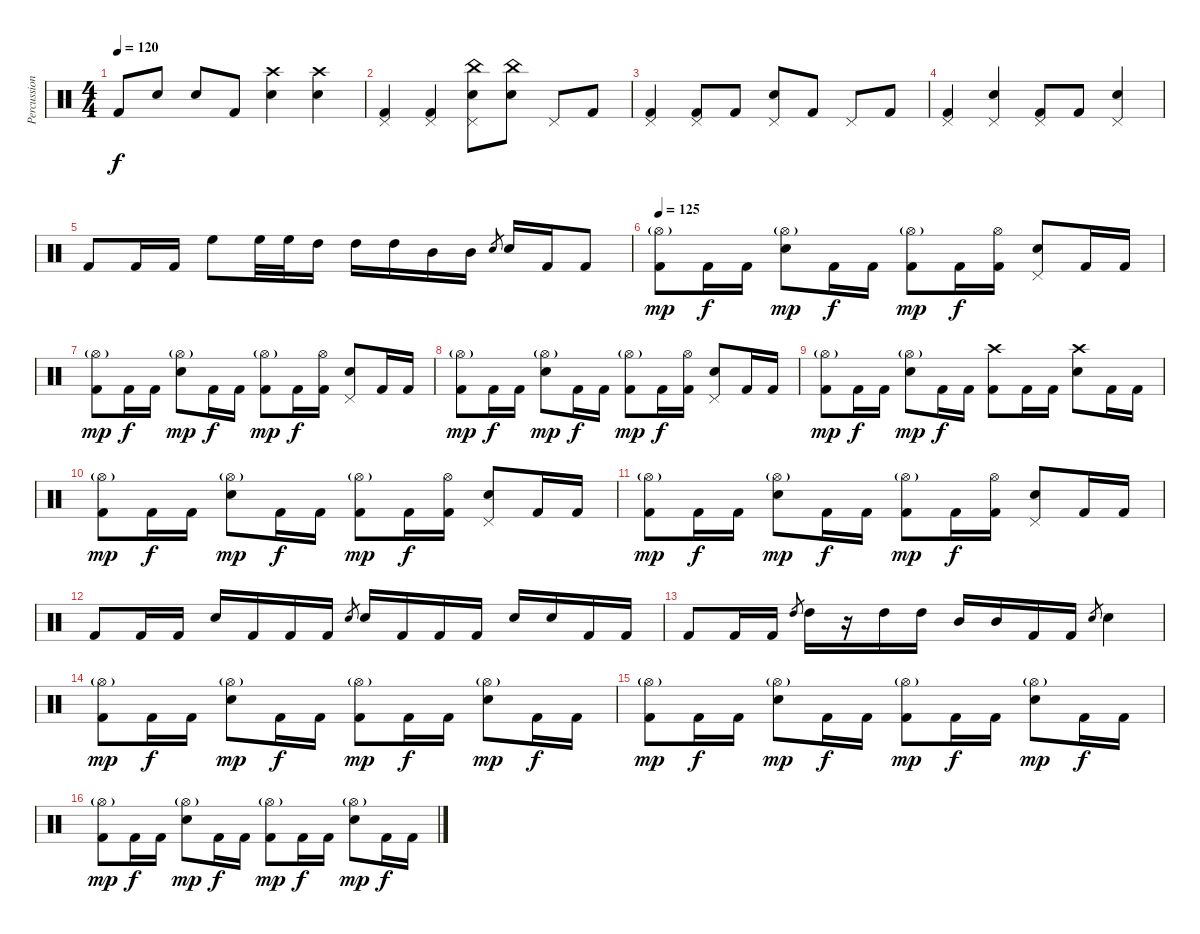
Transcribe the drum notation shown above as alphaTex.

\track ("Percussion" "Percussion") {instrument percussion}
\staff {score}
\articulation defaults
\ts (4 4)
\tempo 120
\clef neutral
\ks c "Kick (hit) 2".8{dy f} "Electric Snare (hit)".8 "Electric Snare (hit)".8 "Kick (hit) 2".8
("Crash high (hit)" "Electric Snare (hit)").4 ("Crash high (hit)" "Electric Snare (hit)").4 |
("Pedal Hi-Hat (hit)" "Kick (hit) 2").4 ("Pedal Hi-Hat (hit)" "Kick (hit) 2").4 ("Pedal Hi-Hat (hit)" "China (hit)" "Electric Snare (hit)").8 ("China (hit)" "Electric Snare (hit)").8 "Pedal Hi-Hat (hit)".8 "Kick (hit) 2".8 |
("Pedal Hi-Hat (hit)" "Kick (hit) 2").4 ("Pedal Hi-Hat (hit)" "Kick (hit) 2").8 "Kick (hit) 2".8 ("Pedal Hi-Hat (hit)" "Electric Snare (hit)").8 "Kick (hit) 2".8 "Pedal Hi-Hat (hit)".8 "Kick (hit) 2".8 |
("Pedal Hi-Hat (hit)" "Kick (hit) 2").4 ("Pedal Hi-Hat (hit)" "Electric Snare (hit)").4 ("Pedal Hi-Hat (hit)" "Kick (hit) 2").8 "Kick (hit) 2".8 ("Pedal Hi-Hat (hit)" "Electric Snare (hit)").4 |
"Kick (hit) 2".8 "Kick (hit) 2".16 "Kick (hit) 2".16 "High Floor Tom (hit)".8 "High Floor Tom (hit)".32 "High Floor Tom (hit)".32 "High Tom (hit)".16 "High Tom (hit)".16 "High Tom (hit)".16 "Mid Tom (hit)".16 "Mid Tom (hit)".16 "Electric Snare (hit)".8{gr} "Electric Snare (hit)".16 "Kick (hit) 2".16 "Kick (hit) 2".8 |
\tempo 125
("Hi-Hat (open)"{g} "Kick (hit) 2").8{dy mp} "Kick (hit) 2".16{dy f} "Kick (hit) 2".16 ("Hi-Hat (open)"{g} "Electric Snare (hit)").8{dy mp} "Kick (hit) 2".16{dy f} "Kick (hit) 2".16 ("Hi-Hat (open)"{g} "Kick (hit) 2").8{dy mp} "Kick (hit) 2".16{dy f} ("Hi-Hat (open)" "Kick (hit) 2").16 ("Pedal Hi-Hat (hit)" "Electric Snare (hit)").8 "Kick (hit) 2".16 "Kick (hit) 2".16 |
("Hi-Hat (open)"{g} "Kick (hit) 2").8{dy mp} "Kick (hit) 2".16{dy f} "Kick (hit) 2".16 ("Hi-Hat (open)"{g} "Electric Snare (hit)").8{dy mp} "Kick (hit) 2".16{dy f} "Kick (hit) 2".16 ("Hi-Hat (open)"{g} "Kick (hit) 2").8{dy mp} "Kick (hit) 2".16{dy f} ("Hi-Hat (open)" "Kick (hit) 2").16 ("Pedal Hi-Hat (hit)" "Electric Snare (hit)").8 "Kick (hit) 2".16 "Kick (hit) 2".16 |
("Hi-Hat (open)"{g} "Kick (hit) 2").8{dy mp} "Kick (hit) 2".16{dy f} "Kick (hit) 2".16 ("Hi-Hat (open)"{g} "Electric Snare (hit)").8{dy mp} "Kick (hit) 2".16{dy f} "Kick (hit) 2".16 ("Hi-Hat (open)"{g} "Kick (hit) 2").8{dy mp} "Kick (hit) 2".16{dy f} ("Hi-Hat (open)" "Kick (hit) 2").16 ("Pedal Hi-Hat (hit)" "Electric Snare (hit)").8 "Kick (hit) 2".16 "Kick (hit) 2".16 |
("Hi-Hat (open)"{g} "Kick (hit) 2").8{dy mp} "Kick (hit) 2".16{dy f} "Kick (hit) 2".16 ("Hi-Hat (open)"{g} "Electric Snare (hit)").8{dy mp} "Kick (hit) 2".16{dy f} "Kick (hit) 2".16 ("Crash high (hit)" "Kick (hit) 2").8 "Kick (hit) 2".16 "Kick (hit) 2".16 ("Crash high (hit)" "Electric Snare (hit)").8 "Kick (hit) 2".16 "Kick (hit) 2".16 |
("Hi-Hat (open)"{g} "Kick (hit) 2").8{dy mp} "Kick (hit) 2".16{dy f} "Kick (hit) 2".16 ("Hi-Hat (open)"{g} "Electric Snare (hit)").8{dy mp} "Kick (hit) 2".16{dy f} "Kick (hit) 2".16 ("Hi-Hat (open)"{g} "Kick (hit) 2").8{dy mp} "Kick (hit) 2".16{dy f} ("Hi-Hat (open)" "Kick (hit) 2").16 ("Pedal Hi-Hat (hit)" "Electric Snare (hit)").8 "Kick (hit) 2".16 "Kick (hit) 2".16 |
("Hi-Hat (open)"{g} "Kick (hit) 2").8{dy mp} "Kick (hit) 2".16{dy f} "Kick (hit) 2".16 ("Hi-Hat (open)"{g} "Electric Snare (hit)").8{dy mp} "Kick (hit) 2".16{dy f} "Kick (hit) 2".16 ("Hi-Hat (open)"{g} "Kick (hit) 2").8{dy mp} "Kick (hit) 2".16{dy f} ("Hi-Hat (open)" "Kick (hit) 2").16 ("Pedal Hi-Hat (hit)" "Electric Snare (hit)").8 "Kick (hit) 2".16 "Kick (hit) 2".16 |
"Kick (hit) 2".8 "Kick (hit) 2".16 "Kick (hit) 2".16 "Electric Snare (hit)".16 "Kick (hit) 2".16 "Kick (hit) 2".16 "Kick (hit) 2".16 "Electric Snare (hit)".8{gr} "Electric Snare (hit)".16 "Kick (hit) 2".16 "Kick (hit) 2".16 "Kick (hit) 2".16 "Electric Snare (hit)".16 "Electric Snare (hit)".16 "Kick (hit) 2".16 "Kick (hit) 2".16 |
"Kick (hit) 2".8 "Kick (hit) 2".16 "Kick (hit) 2".16 "High Tom (hit)".8{gr} "High Tom (hit)".16 r.16 "High Tom (hit)".16 "High Tom (hit)".16 "Mid Tom (hit)".16 "Mid Tom (hit)".16 "Kick (hit) 2".16 "Kick (hit) 2".16 "Electric Snare (hit)".8{gr} "Electric Snare (hit)".4 |
("Hi-Hat (open)"{g} "Kick (hit) 2").8{dy mp} "Kick (hit) 2".16{dy f} "Kick (hit) 2".16 ("Hi-Hat (open)"{g} "Electric Snare (hit)").8{dy mp} "Kick (hit) 2".16{dy f} "Kick (hit) 2".16 ("Hi-Hat (open)"{g} "Kick (hit) 2").8{dy mp} "Kick (hit) 2".16{dy f} "Kick (hit) 2".16 ("Hi-Hat (open)"{g} "Electric Snare (hit)").8{dy mp} "Kick (hit) 2".16{dy f} "Kick (hit) 2".16 |
("Hi-Hat (open)"{g} "Kick (hit) 2").8{dy mp} "Kick (hit) 2".16{dy f} "Kick (hit) 2".16 ("Hi-Hat (open)"{g} "Electric Snare (hit)").8{dy mp} "Kick (hit) 2".16{dy f} "Kick (hit) 2".16 ("Hi-Hat (open)"{g} "Kick (hit) 2").8{dy mp} "Kick (hit) 2".16{dy f} "Kick (hit) 2".16 ("Hi-Hat (open)"{g} "Electric Snare (hit)").8{dy mp} "Kick (hit) 2".16{dy f} "Kick (hit) 2".16 |
("Hi-Hat (open)"{g} "Kick (hit) 2").8{dy mp} "Kick (hit) 2".16{dy f} "Kick (hit) 2".16 ("Hi-Hat (open)"{g} "Electric Snare (hit)").8{dy mp} "Kick (hit) 2".16{dy f} "Kick (hit) 2".16 ("Hi-Hat (open)"{g} "Kick (hit) 2").8{dy mp} "Kick (hit) 2".16{dy f} "Kick (hit) 2".16 ("Hi-Hat (open)"{g} "Electric Snare (hit)").8{dy mp} "Kick (hit) 2".16{dy f} "Kick (hit) 2".16
